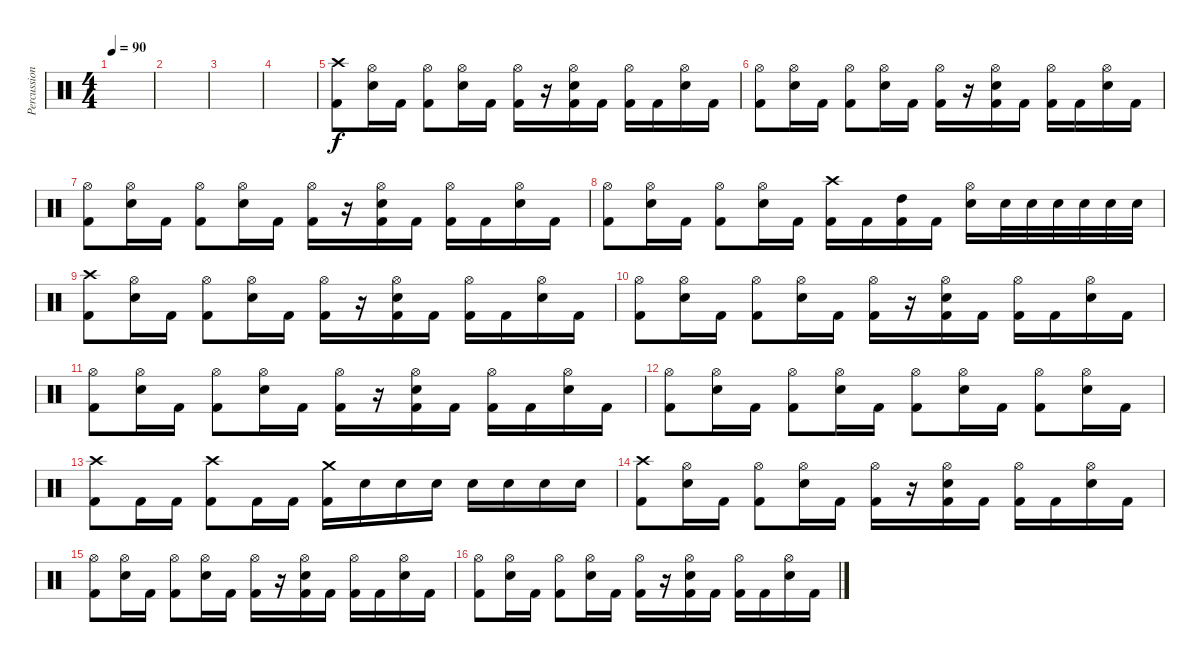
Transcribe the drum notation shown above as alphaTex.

\track ("Percussion" "Percussion") {instrument percussion}
\staff {score}
\articulation defaults
\ts (4 4)
\tempo 90
\clef neutral
\ks c
|
|
|
|
("Crash high (hit)" "Kick (hit) 2").8 ("Hi-Hat (open)" "Electric Snare (hit)").16 "Kick (hit) 2".16 ("Hi-Hat (open)" "Kick (hit) 2").8 ("Hi-Hat (open)" "Electric Snare (hit)").16 "Kick (hit) 2".16 ("Hi-Hat (open)" "Kick (hit) 2").16 r.16 ("Hi-Hat (open)" "Electric Snare (hit)" "Kick (hit) 2").16 "Kick (hit) 2".16 ("Hi-Hat (open)" "Kick (hit) 2").16 "Kick (hit) 2".16 ("Hi-Hat (open)" "Electric Snare (hit)").16 "Kick (hit) 2".16 |
("Hi-Hat (open)" "Kick (hit) 2").8 ("Hi-Hat (open)" "Electric Snare (hit)").16 "Kick (hit) 2".16 ("Hi-Hat (open)" "Kick (hit) 2").8 ("Hi-Hat (open)" "Electric Snare (hit)").16 "Kick (hit) 2".16 ("Hi-Hat (open)" "Kick (hit) 2").16 r.16 ("Hi-Hat (open)" "Electric Snare (hit)" "Kick (hit) 2").16 "Kick (hit) 2".16 ("Hi-Hat (open)" "Kick (hit) 2").16 "Kick (hit) 2".16 ("Hi-Hat (open)" "Electric Snare (hit)").16 "Kick (hit) 2".16 |
("Hi-Hat (open)" "Kick (hit) 2").8 ("Hi-Hat (open)" "Electric Snare (hit)").16 "Kick (hit) 2".16 ("Hi-Hat (open)" "Kick (hit) 2").8 ("Hi-Hat (open)" "Electric Snare (hit)").16 "Kick (hit) 2".16 ("Hi-Hat (open)" "Kick (hit) 2").16 r.16 ("Hi-Hat (open)" "Electric Snare (hit)" "Kick (hit) 2").16 "Kick (hit) 2".16 ("Hi-Hat (open)" "Kick (hit) 2").16 "Kick (hit) 2".16 ("Hi-Hat (open)" "Electric Snare (hit)").16 "Kick (hit) 2".16 |
("Hi-Hat (open)" "Kick (hit) 2").8 ("Hi-Hat (open)" "Electric Snare (hit)").16 "Kick (hit) 2".16 ("Hi-Hat (open)" "Kick (hit) 2").8 ("Hi-Hat (open)" "Electric Snare (hit)").16 "Kick (hit) 2".16 ("Crash high (hit)" "Kick (hit) 2").16 "Kick (hit) 2".16 ("High Tom (hit)" "Kick (hit) 2").16 "Kick (hit) 2".16 ("Hi-Hat (open)" "Electric Snare (hit)").16 "Electric Snare (hit)".32 "Electric Snare (hit)".32 "Electric Snare (hit)".32 "Electric Snare (hit)".32 "Electric Snare (hit)".32 "Electric Snare (hit)".32 |
("Crash high (hit)" "Kick (hit) 2").8 ("Hi-Hat (open)" "Electric Snare (hit)").16 "Kick (hit) 2".16 ("Hi-Hat (open)" "Kick (hit) 2").8 ("Hi-Hat (open)" "Electric Snare (hit)").16 "Kick (hit) 2".16 ("Hi-Hat (open)" "Kick (hit) 2").16 r.16 ("Hi-Hat (open)" "Electric Snare (hit)" "Kick (hit) 2").16 "Kick (hit) 2".16 ("Hi-Hat (open)" "Kick (hit) 2").16 "Kick (hit) 2".16 ("Hi-Hat (open)" "Electric Snare (hit)").16 "Kick (hit) 2".16 |
("Hi-Hat (open)" "Kick (hit) 2").8 ("Hi-Hat (open)" "Electric Snare (hit)").16 "Kick (hit) 2".16 ("Hi-Hat (open)" "Kick (hit) 2").8 ("Hi-Hat (open)" "Electric Snare (hit)").16 "Kick (hit) 2".16 ("Hi-Hat (open)" "Kick (hit) 2").16 r.16 ("Hi-Hat (open)" "Electric Snare (hit)" "Kick (hit) 2").16 "Kick (hit) 2".16 ("Hi-Hat (open)" "Kick (hit) 2").16 "Kick (hit) 2".16 ("Hi-Hat (open)" "Electric Snare (hit)").16 "Kick (hit) 2".16 |
("Hi-Hat (open)" "Kick (hit) 2").8 ("Hi-Hat (open)" "Electric Snare (hit)").16 "Kick (hit) 2".16 ("Hi-Hat (open)" "Kick (hit) 2").8 ("Hi-Hat (open)" "Electric Snare (hit)").16 "Kick (hit) 2".16 ("Hi-Hat (open)" "Kick (hit) 2").16 r.16 ("Hi-Hat (open)" "Electric Snare (hit)" "Kick (hit) 2").16 "Kick (hit) 2".16 ("Hi-Hat (open)" "Kick (hit) 2").16 "Kick (hit) 2".16 ("Hi-Hat (open)" "Electric Snare (hit)").16 "Kick (hit) 2".16 |
("Hi-Hat (open)" "Kick (hit) 2").8 ("Hi-Hat (open)" "Electric Snare (hit)").16 "Kick (hit) 2".16 ("Hi-Hat (open)" "Kick (hit) 2").8 ("Hi-Hat (open)" "Electric Snare (hit)").16 "Kick (hit) 2".16 ("Hi-Hat (open)" "Kick (hit) 2").8 ("Hi-Hat (open)" "Electric Snare (hit)").16 "Kick (hit) 2".16 ("Hi-Hat (open)" "Kick (hit) 2").8 ("Hi-Hat (open)" "Electric Snare (hit)").16 "Kick (hit) 2".16 |
("Crash high (hit)" "Kick (hit) 2").8 "Kick (hit) 2".16 "Kick (hit) 2".16 ("Crash high (hit)" "Kick (hit) 2").8 "Kick (hit) 2".16 "Kick (hit) 2".16 ("Crash medium (hit)" "Kick (hit) 2").16 "Electric Snare (hit)".16 "Electric Snare (hit)".16 "Electric Snare (hit)".16 "Electric Snare (hit)".16 "Electric Snare (hit)".16 "Electric Snare (hit)".16 "Electric Snare (hit)".16 |
("Crash high (hit)" "Kick (hit) 2").8 ("Hi-Hat (open)" "Electric Snare (hit)").16 "Kick (hit) 2".16 ("Hi-Hat (open)" "Kick (hit) 2").8 ("Hi-Hat (open)" "Electric Snare (hit)").16 "Kick (hit) 2".16 ("Hi-Hat (open)" "Kick (hit) 2").16 r.16 ("Hi-Hat (open)" "Electric Snare (hit)" "Kick (hit) 2").16 "Kick (hit) 2".16 ("Hi-Hat (open)" "Kick (hit) 2").16 "Kick (hit) 2".16 ("Hi-Hat (open)" "Electric Snare (hit)").16 "Kick (hit) 2".16 |
("Hi-Hat (open)" "Kick (hit) 2").8 ("Hi-Hat (open)" "Electric Snare (hit)").16 "Kick (hit) 2".16 ("Hi-Hat (open)" "Kick (hit) 2").8 ("Hi-Hat (open)" "Electric Snare (hit)").16 "Kick (hit) 2".16 ("Hi-Hat (open)" "Kick (hit) 2").16 r.16 ("Hi-Hat (open)" "Electric Snare (hit)" "Kick (hit) 2").16 "Kick (hit) 2".16 ("Hi-Hat (open)" "Kick (hit) 2").16 "Kick (hit) 2".16 ("Hi-Hat (open)" "Electric Snare (hit)").16 "Kick (hit) 2".16 |
("Hi-Hat (open)" "Kick (hit) 2").8 ("Hi-Hat (open)" "Electric Snare (hit)").16 "Kick (hit) 2".16 ("Hi-Hat (open)" "Kick (hit) 2").8 ("Hi-Hat (open)" "Electric Snare (hit)").16 "Kick (hit) 2".16 ("Hi-Hat (open)" "Kick (hit) 2").16 r.16 ("Hi-Hat (open)" "Electric Snare (hit)" "Kick (hit) 2").16 "Kick (hit) 2".16 ("Hi-Hat (open)" "Kick (hit) 2").16 "Kick (hit) 2".16 ("Hi-Hat (open)" "Electric Snare (hit)").16 "Kick (hit) 2".16
